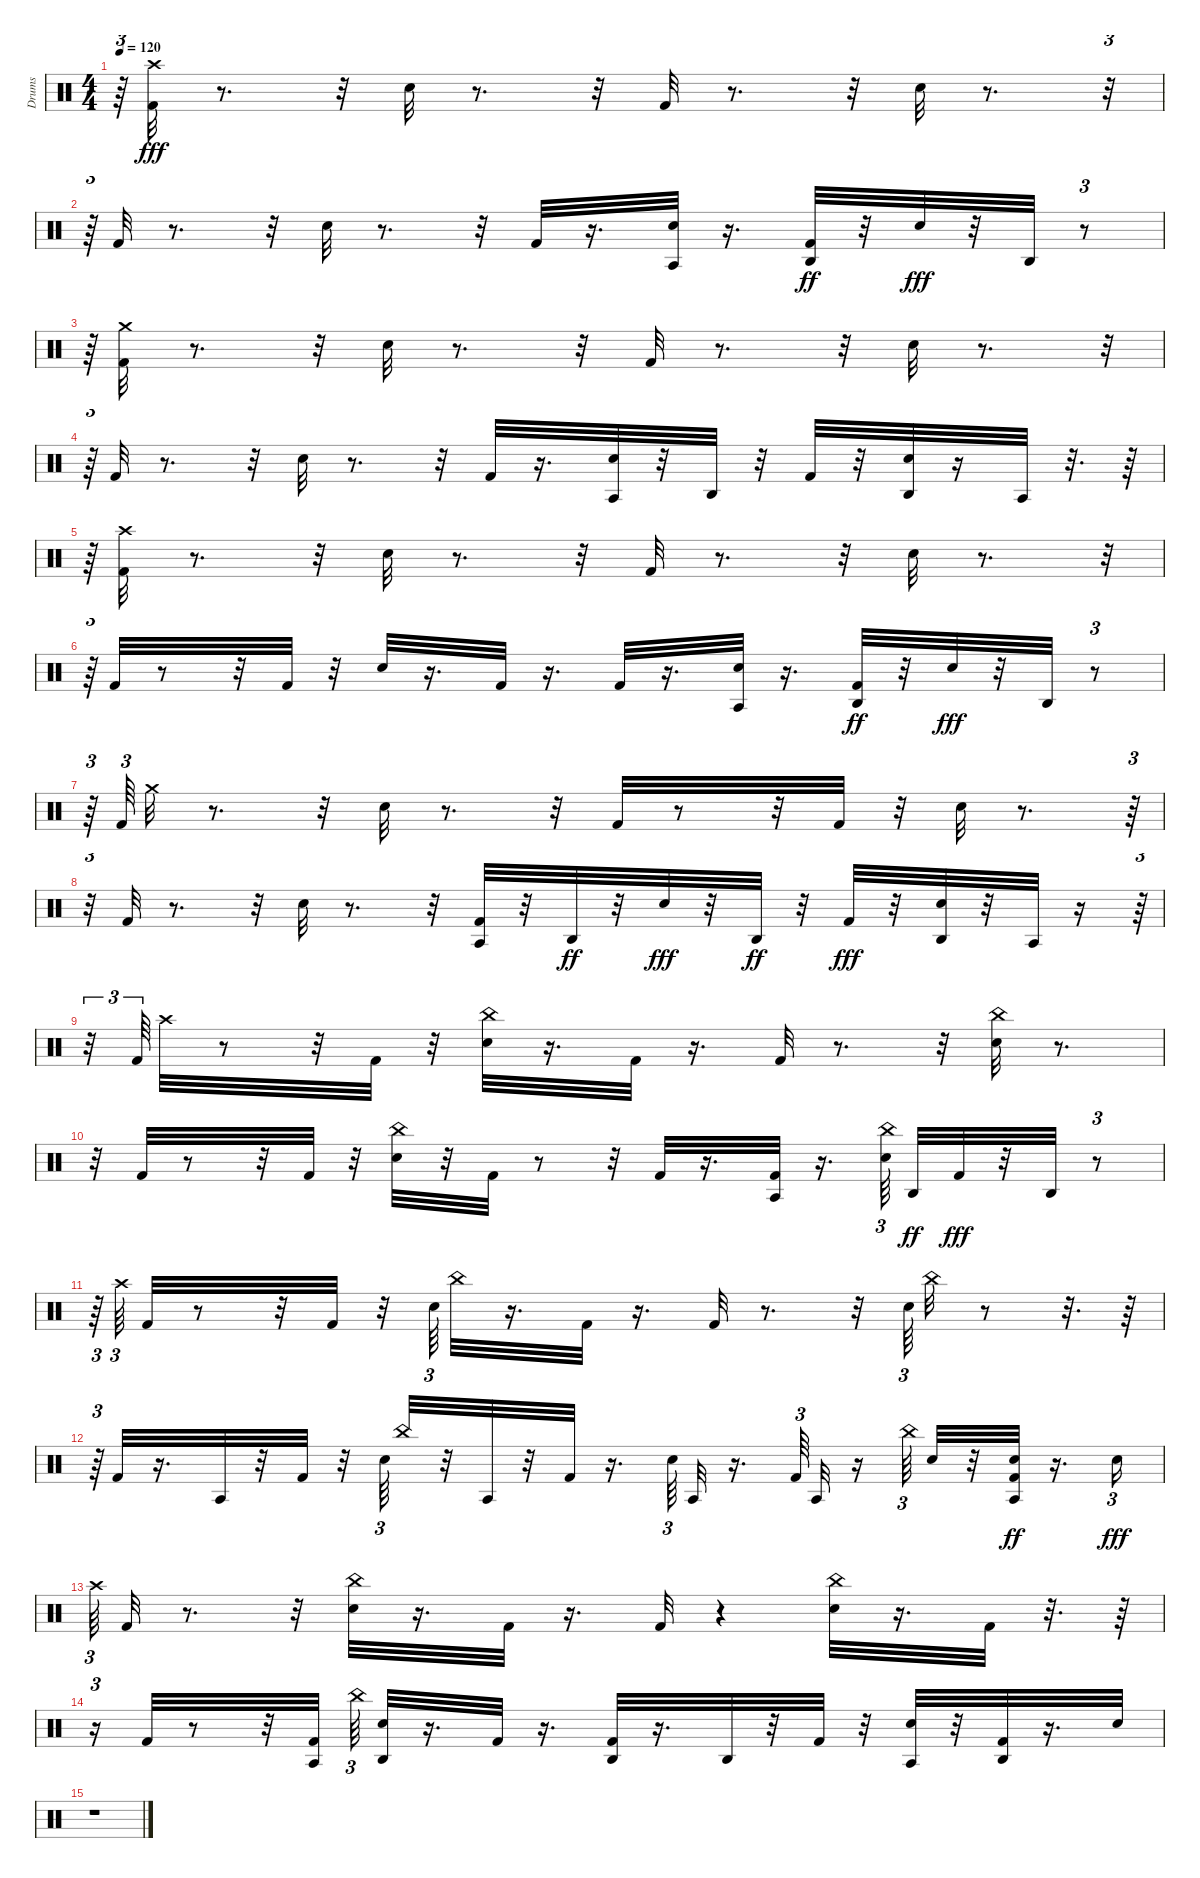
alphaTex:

\track ("Drums" "Drums") {instrument percussion}
\staff {score}
\articulation defaults
\ts (4 4)
\tempo 120
\clef neutral
\ks c
r.64{tu (3 2) dy fff} ("Kick (hit) 2" "Crash high (hit)").32 r.8{d} r.32 "Snare (hit) 2".32 r.8{d} r.32 "Kick (hit) 2".32 r.8{d} r.32 "Snare (hit) 2".32 r.8{d} r.32{tu (3 2)} |
r.64{tu (3 2)} "Kick (hit) 2".32 r.8{d} r.32 "Snare (hit) 2".32 r.8{d} r.32 "Kick (hit) 2".32 r.16{d} ("Agogo tow (hit)" "Snare (hit) 2").32 r.16{d} ("Kick (hit) 2" "Agogo high (hit)").32{dy ff} r.32 "Snare (hit) 2".32{dy fff} r.32 "Agogo high (hit)".32 r.8{tu (3 2)} |
r.64{tu (3 2)} ("Crash medium (hit)" "Kick (hit) 2").32 r.8{d} r.32 "Snare (hit) 2".32 r.8{d} r.32 "Kick (hit) 2".32 r.8{d} r.32 "Snare (hit) 2".32 r.8{d} r.32{tu (3 2)} |
r.64{tu (3 2)} "Kick (hit) 2".32 r.8{d} r.32 "Snare (hit) 2".32 r.8{d} r.32 "Kick (hit) 2".32 r.16{d} ("Agogo tow (hit)" "Snare (hit) 2").32 r.32 "Agogo high (hit)".32 r.32 "Kick (hit) 2".32 r.32 ("Agogo high (hit)" "Snare (hit) 2").32 r.16 "Agogo tow (hit)".32 r.32{d} r.64 |
r.64{tu (3 2)} ("Crash high (hit)" "Kick (hit) 2").32 r.8{d} r.32 "Snare (hit) 2".32 r.8{d} r.32 "Kick (hit) 2".32 r.8{d} r.32 "Snare (hit) 2".32 r.8{d} r.32{tu (3 2)} |
r.64{tu (3 2)} "Kick (hit) 2".32 r.8 r.32 "Kick (hit) 2".32 r.32 "Snare (hit) 2".32 r.16{d} "Kick (hit) 2".32 r.16{d} "Kick (hit) 2".32 r.16{d} ("Snare (hit) 2" "Agogo tow (hit)").32 r.16{d} ("Kick (hit) 2" "Agogo high (hit)").32{dy ff} r.32 "Snare (hit) 2".32{dy fff} r.32 "Agogo high (hit)".32 r.8{tu (3 2)} |
r.64{tu (3 2)} "Kick (hit) 2".64{tu (3 2)} "Crash medium (hit)".32 r.8{d} r.32 "Snare (hit) 2".32 r.8{d} r.32 "Kick (hit) 2".32 r.8 r.32 "Kick (hit) 2".32 r.32 "Snare (hit) 2".32 r.8{d} r.64{tu (3 2)} |
r.32{tu (3 2)} "Kick (hit) 2".32 r.8{d} r.32 "Snare (hit) 2".32 r.8{d} r.32 ("Agogo tow (hit)" "Kick (hit) 2").32 r.32 "Agogo high (hit)".32{dy ff} r.32 "Snare (hit) 2".32{dy fff} r.32 "Agogo high (hit)".32{dy ff} r.32 "Kick (hit) 2".32{dy fff} r.32 ("Agogo high (hit)" "Snare (hit) 2").32 r.32 "Agogo tow (hit)".32 r.16 r.64{tu (3 2)} |
r.32{tu (3 2)} "Kick (hit) 2".64{tu (3 2)} "Crash high (hit)".32 r.8 r.32 "Kick (hit) 2".32 r.32 ("Snare (hit) 2" "China (hit)").32 r.16{d} "Kick (hit) 2".32 r.16{d} "Kick (hit) 2".32 r.8{d} r.32 ("Snare (hit) 2" "China (hit)").32 r.8{d} |
r.32 "Kick (hit) 2".32 r.8 r.32 "Kick (hit) 2".32 r.32 ("Snare (hit) 2" "China (hit)").32 r.32 "Kick (hit) 2".32 r.8 r.32 "Kick (hit) 2".32 r.16{d} ("Agogo tow (hit)" "Kick (hit) 2").32 r.16{d} ("China (hit)" "Snare (hit) 2").64{tu (3 2) beam splitsecondary} "Agogo high (hit)".32{dy ff} "Kick (hit) 2".32{dy fff} r.32 "Agogo high (hit)".32 r.8{tu (3 2)} |
r.64{tu (3 2)} "Crash high (hit)".64{tu (3 2)} "Kick (hit) 2".32 r.8 r.32 "Kick (hit) 2".32 r.32 "Snare (hit) 2".64{tu (3 2)} "China (hit)".32 r.16{d} "Kick (hit) 2".32 r.16{d} "Kick (hit) 2".32 r.8{d} r.32 "Snare (hit) 2".64{tu (3 2)} "China (hit)".32 r.8 r.32{d} r.64 |
r.64{tu (3 2)} "Kick (hit) 2".32 r.16{d} "Agogo tow (hit)".32 r.32 "Kick (hit) 2".32 r.32 "Snare (hit) 2".64{tu (3 2)} "China (hit)".32 r.32 "Agogo tow (hit)".32 r.32 "Kick (hit) 2".32 r.16{d} "Snare (hit) 2".64{tu (3 2)} "Agogo tow (hit)".32 r.16{d} "Kick (hit) 2".64{tu (3 2)} "Agogo tow (hit)".32 r.16 "China (hit)".64{tu (3 2)} "Snare (hit) 2".32 r.32 ("Agogo tow (hit)" "Kick (hit) 2" "Snare (hit) 2").32{dy ff} r.16{d} "Snare (hit) 2".16{tu (3 2) dy fff} |
"Crash high (hit)".64{tu (3 2)} "Kick (hit) 2".32 r.8{d} r.32 ("Snare (hit) 2" "China (hit)").32 r.16{d} "Kick (hit) 2".32 r.16{d} "Kick (hit) 2".32 r.4 ("China (hit)" "Snare (hit) 2").32 r.16{d} "Kick (hit) 2".32 r.32{d} r.64 |
r.16{tu (3 2)} "Kick (hit) 2".32 r.8 r.32 ("Agogo tow (hit)" "Kick (hit) 2").32 "China (hit)".64{tu (3 2)} ("Agogo high (hit)" "Snare (hit) 2").32 r.16{d} "Kick (hit) 2".32 r.16{d} ("Kick (hit) 2" "Agogo high (hit)").32 r.16{d} "Agogo high (hit)".32 r.32 "Kick (hit) 2".32 r.32 ("Agogo tow (hit)" "Snare (hit) 2").32 r.32 ("Kick (hit) 2" "Agogo high (hit)").32 r.16{d} "Snare (hit) 2".32 |
r.1
